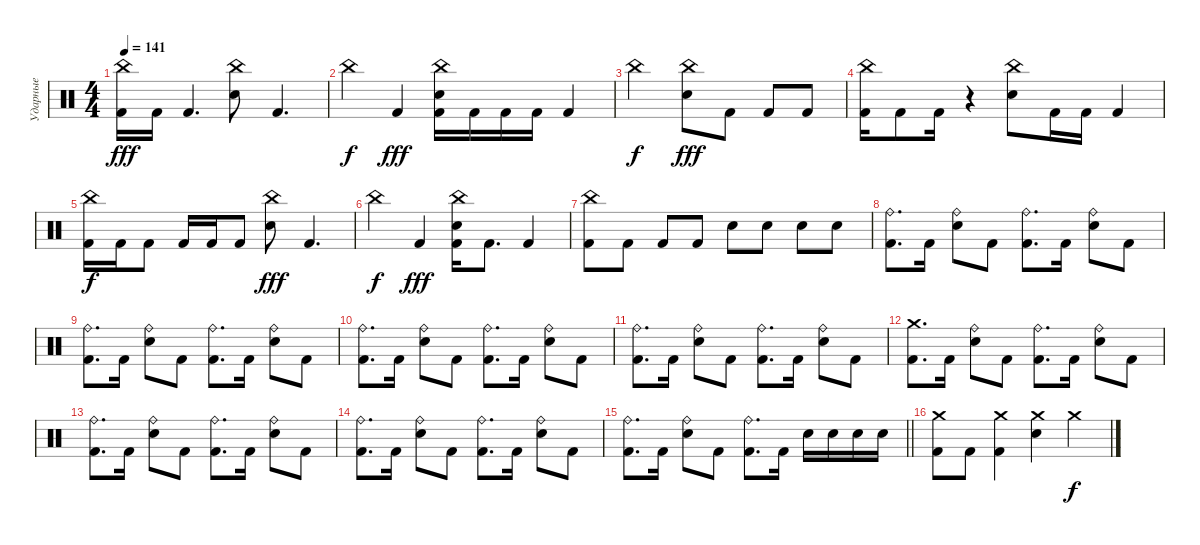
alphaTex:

\track ("Ударные" "Ударные") {instrument percussion}
\staff {score}
\articulation defaults
\ts (4 4)
\tempo 141
\clef neutral
\ks c
("China (hit)" "Kick (hit) 2").16{dy fff} "Kick (hit) 2".16 "Kick (hit) 2".4{d} ("China (hit)" "Electric Snare (hit)").8 "Kick (hit) 2".4{d} |
"China (hit)".4{dy f} "Kick (hit) 2".4{dy fff} ("China (hit)" "Electric Snare (hit)" "Kick (hit) 2").16 "Kick (hit) 2".16 "Kick (hit) 2".16 "Kick (hit) 2".16 "Kick (hit) 2".4 |
"China (hit)".2{dy f} ("China (hit)" "Electric Snare (hit)").8{dy fff} "Kick (hit) 2".8 "Kick (hit) 2".8 "Kick (hit) 2".8 |
("China (hit)" "Kick (hit) 2").16 "Kick (hit) 2".8 "Kick (hit) 2".16 r.4 ("China (hit)" "Electric Snare (hit)").8 "Kick (hit) 2".16 "Kick (hit) 2".16 "Kick (hit) 2".4 |
("China (hit)" "Kick (hit) 2").16{dy f} "Kick (hit) 2".16 "Kick (hit) 2".8 "Kick (hit) 2".16 "Kick (hit) 2".16 "Kick (hit) 2".8 ("China (hit)" "Electric Snare (hit)").8{dy fff} "Kick (hit) 2".4{d} |
"China (hit)".4{dy f} "Kick (hit) 2".4{dy fff} ("China (hit)" "Electric Snare (hit)" "Kick (hit) 2").16 "Kick (hit) 2".8{d} "Kick (hit) 2".4 |
("China (hit)" "Kick (hit) 2").8 "Kick (hit) 2".8 "Kick (hit) 2".8 "Kick (hit) 2".8 "Electric Snare (hit)".8 "Electric Snare (hit)".8 "Electric Snare (hit)".8 "Electric Snare (hit)".8 |
("Ride (bell)" "Kick (hit) 2").8{d} "Kick (hit) 2".16 ("Ride (bell)" "Electric Snare (hit)").8 "Kick (hit) 2".8 ("Ride (bell)" "Kick (hit) 2").8{d} "Kick (hit) 2".16 ("Ride (bell)" "Electric Snare (hit)").8 "Kick (hit) 2".8 |
("Ride (bell)" "Kick (hit) 2").8{d} "Kick (hit) 2".16 ("Ride (bell)" "Electric Snare (hit)").8 "Kick (hit) 2".8 ("Ride (bell)" "Kick (hit) 2").8{d} "Kick (hit) 2".16 ("Ride (bell)" "Electric Snare (hit)").8 "Kick (hit) 2".8 |
("Ride (bell)" "Kick (hit) 2").8{d} "Kick (hit) 2".16 ("Ride (bell)" "Electric Snare (hit)").8 "Kick (hit) 2".8 ("Ride (bell)" "Kick (hit) 2").8{d} "Kick (hit) 2".16 ("Ride (bell)" "Electric Snare (hit)").8 "Kick (hit) 2".8 |
("Ride (bell)" "Kick (hit) 2").8{d} "Kick (hit) 2".16 ("Ride (bell)" "Electric Snare (hit)").8 "Kick (hit) 2".8 ("Ride (bell)" "Kick (hit) 2").8{d} "Kick (hit) 2".16 ("Ride (bell)" "Electric Snare (hit)").8 "Kick (hit) 2".8 |
("Crash medium (hit)" "Kick (hit) 2").8{d} "Kick (hit) 2".16 ("Ride (bell)" "Electric Snare (hit)").8 "Kick (hit) 2".8 ("Ride (bell)" "Kick (hit) 2").8{d} "Kick (hit) 2".16 ("Ride (bell)" "Electric Snare (hit)").8 "Kick (hit) 2".8 |
("Ride (bell)" "Kick (hit) 2").8{d} "Kick (hit) 2".16 ("Ride (bell)" "Electric Snare (hit)").8 "Kick (hit) 2".8 ("Ride (bell)" "Kick (hit) 2").8{d} "Kick (hit) 2".16 ("Ride (bell)" "Electric Snare (hit)").8 "Kick (hit) 2".8 |
("Ride (bell)" "Kick (hit) 2").8{d} "Kick (hit) 2".16 ("Ride (bell)" "Electric Snare (hit)").8 "Kick (hit) 2".8 ("Ride (bell)" "Kick (hit) 2").8{d} "Kick (hit) 2".16 ("Ride (bell)" "Electric Snare (hit)").8 "Kick (hit) 2".8 |
\barLineRight lightlight
("Ride (bell)" "Kick (hit) 2").8{d} "Kick (hit) 2".16 ("Ride (bell)" "Electric Snare (hit)").8 "Kick (hit) 2".8 ("Ride (bell)" "Kick (hit) 2").8{d} "Kick (hit) 2".16 "Electric Snare (hit)".16 "Electric Snare (hit)".16 "Electric Snare (hit)".16 "Electric Snare (hit)".16 |
("Crash medium (hit)" "Kick (hit) 2").8 "Kick (hit) 2".8 ("Crash medium (hit)" "Kick (hit) 2").4 ("Crash medium (hit)" "Electric Snare (hit)").4 "Crash medium (hit)".4{dy f}
